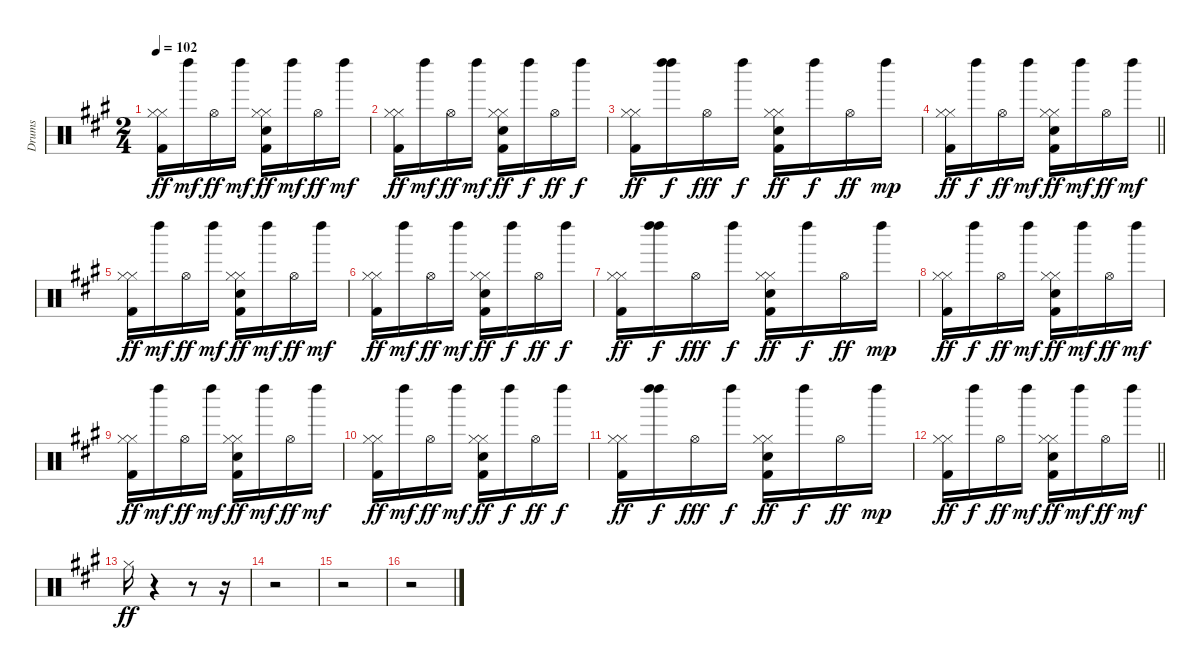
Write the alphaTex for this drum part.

\track ("Drums" "Drums") {instrument percussion}
\staff {score}
\articulation defaults
\ts (2 4)
\tempo 102
\clef neutral
\ks a
("Kick (hit) 2" "Hi-Hat (closed)" "Hi-Hat (closed)").16{dy ff} "Left Maraca (hit)".16{dy mf} "Hi-Hat (open)".16{dy ff} "Left Maraca (hit)".16{dy mf} ("Kick (hit) 2" "Electric Snare (hit)" "Hi-Hat (closed)" "Hi-Hat (closed)").16{dy ff} "Left Maraca (hit)".16{dy mf} "Hi-Hat (open)".16{dy ff} "Left Maraca (hit)".16{dy mf} |
("Kick (hit) 2" "Hi-Hat (closed)" "Hi-Hat (closed)").16{dy ff} "Left Maraca (hit)".16{dy mf} "Hi-Hat (open)".16{dy ff} "Left Maraca (hit)".16{dy mf} ("Kick (hit) 2" "Electric Snare (hit)" "Hi-Hat (closed)" "Hi-Hat (closed)").16{dy ff} "Left Maraca (hit)".16{dy f} "Hi-Hat (open)".16{dy ff} "Left Maraca (hit)".16{dy f} |
("Kick (hit) 2" "Hi-Hat (closed)" "Hi-Hat (closed)").16{dy ff} ("Left Maraca (hit)" "Left Maraca (hit)").16{dy f} "Hi-Hat (open)".16{dy fff} "Left Maraca (hit)".16{dy f} ("Kick (hit) 2" "Electric Snare (hit)" "Hi-Hat (closed)" "Hi-Hat (closed)").16{dy ff} "Left Maraca (hit)".16{dy f} "Hi-Hat (open)".16{dy ff} "Left Maraca (hit)".16{dy mp} |
\barLineRight lightlight
("Kick (hit) 2" "Hi-Hat (closed)" "Hi-Hat (closed)").16{dy ff} "Left Maraca (hit)".16{dy f} "Hi-Hat (open)".16{dy ff} "Left Maraca (hit)".16{dy mf} ("Kick (hit) 2" "Electric Snare (hit)" "Hi-Hat (closed)" "Hi-Hat (closed)").16{dy ff} "Left Maraca (hit)".16{dy mf} "Hi-Hat (open)".16{dy ff} "Left Maraca (hit)".16{dy mf} |
("Kick (hit) 2" "Hi-Hat (closed)" "Hi-Hat (closed)").16{dy ff} "Left Maraca (hit)".16{dy mf} "Hi-Hat (open)".16{dy ff} "Left Maraca (hit)".16{dy mf} ("Kick (hit) 2" "Electric Snare (hit)" "Hi-Hat (closed)" "Hi-Hat (closed)").16{dy ff} "Left Maraca (hit)".16{dy mf} "Hi-Hat (open)".16{dy ff} "Left Maraca (hit)".16{dy mf} |
("Kick (hit) 2" "Hi-Hat (closed)" "Hi-Hat (closed)").16{dy ff} "Left Maraca (hit)".16{dy mf} "Hi-Hat (open)".16{dy ff} "Left Maraca (hit)".16{dy mf} ("Kick (hit) 2" "Electric Snare (hit)" "Hi-Hat (closed)" "Hi-Hat (closed)").16{dy ff} "Left Maraca (hit)".16{dy f} "Hi-Hat (open)".16{dy ff} "Left Maraca (hit)".16{dy f} |
("Kick (hit) 2" "Hi-Hat (closed)" "Hi-Hat (closed)").16{dy ff} ("Left Maraca (hit)" "Left Maraca (hit)").16{dy f} "Hi-Hat (open)".16{dy fff} "Left Maraca (hit)".16{dy f} ("Kick (hit) 2" "Electric Snare (hit)" "Hi-Hat (closed)" "Hi-Hat (closed)").16{dy ff} "Left Maraca (hit)".16{dy f} "Hi-Hat (open)".16{dy ff} "Left Maraca (hit)".16{dy mp} |
("Kick (hit) 2" "Hi-Hat (closed)" "Hi-Hat (closed)").16{dy ff} "Left Maraca (hit)".16{dy f} "Hi-Hat (open)".16{dy ff} "Left Maraca (hit)".16{dy mf} ("Kick (hit) 2" "Electric Snare (hit)" "Hi-Hat (closed)" "Hi-Hat (closed)").16{dy ff} "Left Maraca (hit)".16{dy mf} "Hi-Hat (open)".16{dy ff} "Left Maraca (hit)".16{dy mf} |
("Kick (hit) 2" "Hi-Hat (closed)" "Hi-Hat (closed)").16{dy ff} "Left Maraca (hit)".16{dy mf} "Hi-Hat (open)".16{dy ff} "Left Maraca (hit)".16{dy mf} ("Kick (hit) 2" "Electric Snare (hit)" "Hi-Hat (closed)" "Hi-Hat (closed)").16{dy ff} "Left Maraca (hit)".16{dy mf} "Hi-Hat (open)".16{dy ff} "Left Maraca (hit)".16{dy mf} |
("Kick (hit) 2" "Hi-Hat (closed)" "Hi-Hat (closed)").16{dy ff} "Left Maraca (hit)".16{dy mf} "Hi-Hat (open)".16{dy ff} "Left Maraca (hit)".16{dy mf} ("Kick (hit) 2" "Electric Snare (hit)" "Hi-Hat (closed)" "Hi-Hat (closed)").16{dy ff} "Left Maraca (hit)".16{dy f} "Hi-Hat (open)".16{dy ff} "Left Maraca (hit)".16{dy f} |
("Kick (hit) 2" "Hi-Hat (closed)" "Hi-Hat (closed)").16{dy ff} ("Left Maraca (hit)" "Left Maraca (hit)").16{dy f} "Hi-Hat (open)".16{dy fff} "Left Maraca (hit)".16{dy f} ("Kick (hit) 2" "Electric Snare (hit)" "Hi-Hat (closed)" "Hi-Hat (closed)").16{dy ff} "Left Maraca (hit)".16{dy f} "Hi-Hat (open)".16{dy ff} "Left Maraca (hit)".16{dy mp} |
\barLineRight lightlight
("Kick (hit) 2" "Hi-Hat (closed)" "Hi-Hat (closed)").16{dy ff} "Left Maraca (hit)".16{dy f} "Hi-Hat (open)".16{dy ff} "Left Maraca (hit)".16{dy mf} ("Kick (hit) 2" "Electric Snare (hit)" "Hi-Hat (closed)" "Hi-Hat (closed)").16{dy ff} "Left Maraca (hit)".16{dy mf} "Hi-Hat (open)".16{dy ff} "Left Maraca (hit)".16{dy mf} |
"Hi-Hat (closed)".16{dy ff} r.4 r.8 r.16 |
r.2 |
r.2 |
r.2
